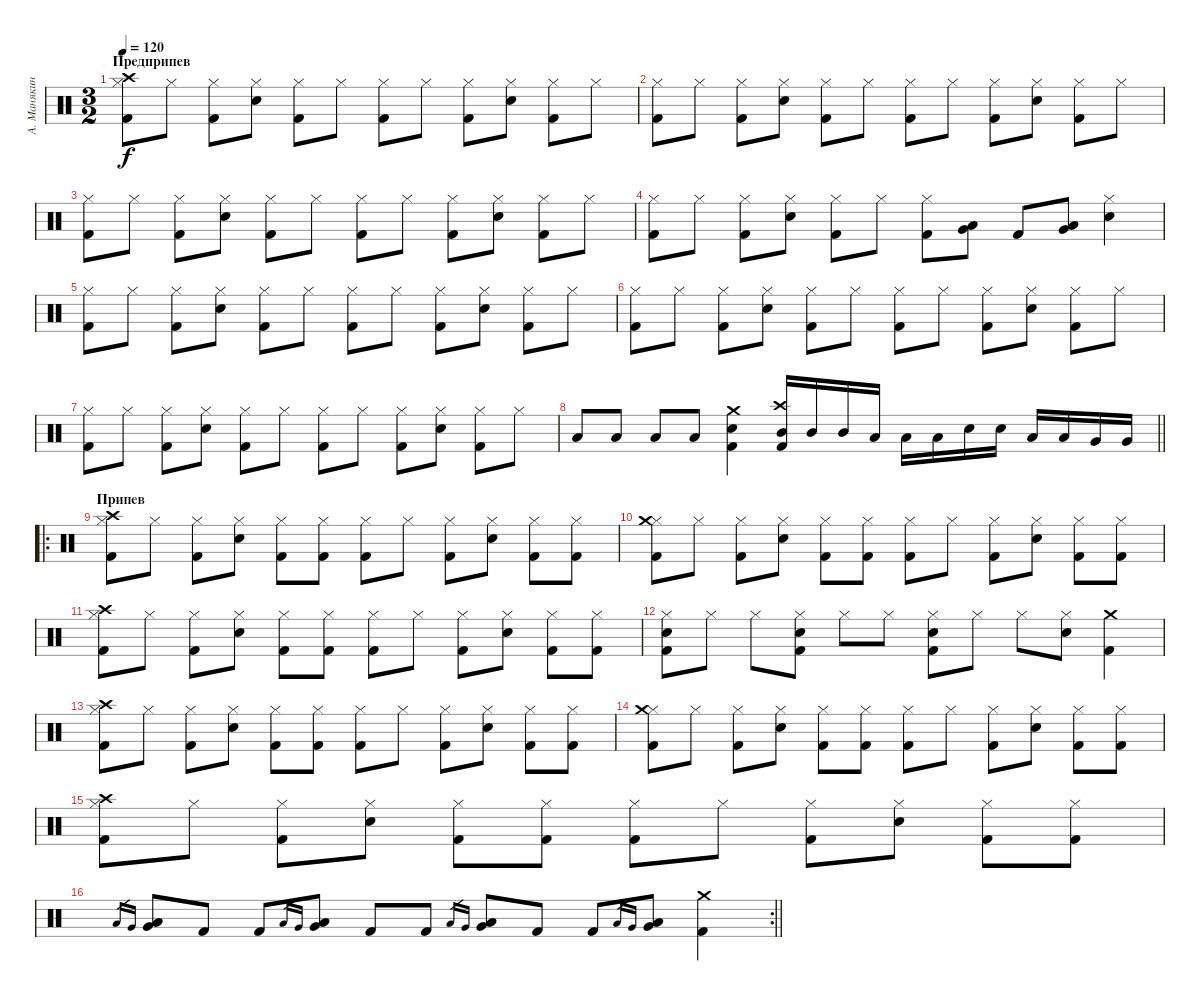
\track ("А. Манякин" "А. Манякин") {instrument percussion}
\staff {score}
\articulation defaults
\ts (3 2)
\section ("" "Предприпев")
\tempo 120
\clef neutral
\ks c
("Kick (hit) 2" "Hi-Hat (closed)" "Crash high (hit)").8{dy f} "Hi-Hat (closed)".8 ("Kick (hit) 2" "Hi-Hat (closed)").8 ("Electric Snare (hit)" "Hi-Hat (closed)").8 ("Kick (hit) 2" "Hi-Hat (closed)").8 "Hi-Hat (closed)".8 ("Kick (hit) 2" "Hi-Hat (closed)").8 "Hi-Hat (closed)".8 ("Kick (hit) 2" "Hi-Hat (closed)").8 ("Electric Snare (hit)" "Hi-Hat (closed)").8 ("Kick (hit) 2" "Hi-Hat (closed)").8 "Hi-Hat (closed)".8 |
("Kick (hit) 2" "Hi-Hat (closed)").8 "Hi-Hat (closed)".8 ("Kick (hit) 2" "Hi-Hat (closed)").8 ("Electric Snare (hit)" "Hi-Hat (closed)").8 ("Kick (hit) 2" "Hi-Hat (closed)").8 "Hi-Hat (closed)".8 ("Kick (hit) 2" "Hi-Hat (closed)").8 "Hi-Hat (closed)".8 ("Kick (hit) 2" "Hi-Hat (closed)").8 ("Electric Snare (hit)" "Hi-Hat (closed)").8 ("Kick (hit) 2" "Hi-Hat (closed)").8 "Hi-Hat (closed)".8 |
("Kick (hit) 2" "Hi-Hat (closed)").8 "Hi-Hat (closed)".8 ("Kick (hit) 2" "Hi-Hat (closed)").8 ("Electric Snare (hit)" "Hi-Hat (closed)").8 ("Kick (hit) 2" "Hi-Hat (closed)").8 "Hi-Hat (closed)".8 ("Kick (hit) 2" "Hi-Hat (closed)").8 "Hi-Hat (closed)".8 ("Kick (hit) 2" "Hi-Hat (closed)").8 ("Electric Snare (hit)" "Hi-Hat (closed)").8 ("Kick (hit) 2" "Hi-Hat (closed)").8 "Hi-Hat (closed)".8 |
("Kick (hit) 2" "Hi-Hat (closed)").8 "Hi-Hat (closed)".8 ("Kick (hit) 2" "Hi-Hat (closed)").8 ("Electric Snare (hit)" "Hi-Hat (closed)").8 ("Kick (hit) 2" "Hi-Hat (closed)").8 "Hi-Hat (closed)".8 ("Kick (hit) 2" "Hi-Hat (closed)").8 ("Low Tom (hit)" "Very Low Tom (hit)").8 "Kick (hit) 2".8 ("Low Tom (hit)" "Very Low Tom (hit)").8 ("Electric Snare (hit)" "Hi-Hat (closed)").4 |
("Kick (hit) 2" "Hi-Hat (closed)").8 "Hi-Hat (closed)".8 ("Kick (hit) 2" "Hi-Hat (closed)").8 ("Electric Snare (hit)" "Hi-Hat (closed)").8 ("Kick (hit) 2" "Hi-Hat (closed)").8 "Hi-Hat (closed)".8 ("Kick (hit) 2" "Hi-Hat (closed)").8 "Hi-Hat (closed)".8 ("Kick (hit) 2" "Hi-Hat (closed)").8 ("Electric Snare (hit)" "Hi-Hat (closed)").8 ("Kick (hit) 2" "Hi-Hat (closed)").8 "Hi-Hat (closed)".8 |
("Kick (hit) 2" "Hi-Hat (closed)").8 "Hi-Hat (closed)".8 ("Kick (hit) 2" "Hi-Hat (closed)").8 ("Electric Snare (hit)" "Hi-Hat (closed)").8 ("Kick (hit) 2" "Hi-Hat (closed)").8 "Hi-Hat (closed)".8 ("Kick (hit) 2" "Hi-Hat (closed)").8 "Hi-Hat (closed)".8 ("Kick (hit) 2" "Hi-Hat (closed)").8 ("Electric Snare (hit)" "Hi-Hat (closed)").8 ("Kick (hit) 2" "Hi-Hat (closed)").8 "Hi-Hat (closed)".8 |
("Kick (hit) 2" "Hi-Hat (closed)").8 "Hi-Hat (closed)".8 ("Kick (hit) 2" "Hi-Hat (closed)").8 ("Electric Snare (hit)" "Hi-Hat (closed)").8 ("Kick (hit) 2" "Hi-Hat (closed)").8 "Hi-Hat (closed)".8 ("Kick (hit) 2" "Hi-Hat (closed)").8 "Hi-Hat (closed)".8 ("Kick (hit) 2" "Hi-Hat (closed)").8 ("Electric Snare (hit)" "Hi-Hat (closed)").8 ("Kick (hit) 2" "Hi-Hat (closed)").8 "Hi-Hat (closed)".8 |
\barLineRight lightlight "Low Tom (hit)".8 "Low Tom (hit)".8 "Low Tom (hit)".8 "Low Tom (hit)".8
("Kick (hit) 2" "Electric Snare (hit)" "Crash medium (hit)").4 ("Kick (hit) 2" "Mid Tom (hit)" "Crash high (hit)").16 "Mid Tom (hit)".16 "Mid Tom (hit)".16 "Low Tom (hit)".16 "Low Tom (hit)".16 "Low Tom (hit)".16 "Electric Snare (hit)".16 "Electric Snare (hit)".16 "Low Tom (hit)".16 "Low Tom (hit)".16 "Very Low Tom (hit)".16 "Very Low Tom (hit)".16 |
\ro
\section ("" "Припев")
("Kick (hit) 2" "Hi-Hat (closed)" "Crash high (hit)").8 "Hi-Hat (closed)".8 ("Kick (hit) 2" "Hi-Hat (closed)").8 ("Electric Snare (hit)" "Hi-Hat (closed)").8 ("Kick (hit) 2" "Hi-Hat (closed)").8 ("Kick (hit) 2" "Hi-Hat (closed)").8 ("Kick (hit) 2" "Hi-Hat (closed)").8 "Hi-Hat (closed)".8 ("Kick (hit) 2" "Hi-Hat (closed)").8 ("Electric Snare (hit)" "Hi-Hat (closed)").8 ("Kick (hit) 2" "Hi-Hat (closed)").8 ("Kick (hit) 2" "Hi-Hat (closed)").8 |
("Kick (hit) 2" "Hi-Hat (closed)" "Crash medium (hit)").8 "Hi-Hat (closed)".8 ("Kick (hit) 2" "Hi-Hat (closed)").8 ("Electric Snare (hit)" "Hi-Hat (closed)").8 ("Kick (hit) 2" "Hi-Hat (closed)").8 ("Kick (hit) 2" "Hi-Hat (closed)").8 ("Kick (hit) 2" "Hi-Hat (closed)").8 "Hi-Hat (closed)".8 ("Kick (hit) 2" "Hi-Hat (closed)").8 ("Electric Snare (hit)" "Hi-Hat (closed)").8 ("Kick (hit) 2" "Hi-Hat (closed)").8 ("Kick (hit) 2" "Hi-Hat (closed)").8 |
("Kick (hit) 2" "Hi-Hat (closed)" "Crash high (hit)").8 "Hi-Hat (closed)".8 ("Kick (hit) 2" "Hi-Hat (closed)").8 ("Electric Snare (hit)" "Hi-Hat (closed)").8 ("Kick (hit) 2" "Hi-Hat (closed)").8 ("Kick (hit) 2" "Hi-Hat (closed)").8 ("Kick (hit) 2" "Hi-Hat (closed)").8 "Hi-Hat (closed)".8 ("Kick (hit) 2" "Hi-Hat (closed)").8 ("Electric Snare (hit)" "Hi-Hat (closed)").8 ("Kick (hit) 2" "Hi-Hat (closed)").8 ("Kick (hit) 2" "Hi-Hat (closed)").8 |
("Kick (hit) 2" "Electric Snare (hit)" "Hi-Hat (closed)").8 "Hi-Hat (closed)".8 "Hi-Hat (closed)".8 ("Kick (hit) 2" "Electric Snare (hit)" "Hi-Hat (closed)").8 "Hi-Hat (closed)".8 "Hi-Hat (closed)".8 ("Kick (hit) 2" "Electric Snare (hit)" "Hi-Hat (closed)").8 "Hi-Hat (closed)".8 "Hi-Hat (closed)".8 ("Electric Snare (hit)" "Hi-Hat (closed)").8 ("Kick (hit) 2" "Crash medium (hit)").4 |
("Kick (hit) 2" "Hi-Hat (closed)" "Crash high (hit)").8 "Hi-Hat (closed)".8 ("Kick (hit) 2" "Hi-Hat (closed)").8 ("Electric Snare (hit)" "Hi-Hat (closed)").8 ("Kick (hit) 2" "Hi-Hat (closed)").8 ("Kick (hit) 2" "Hi-Hat (closed)").8 ("Kick (hit) 2" "Hi-Hat (closed)").8 "Hi-Hat (closed)".8 ("Kick (hit) 2" "Hi-Hat (closed)").8 ("Electric Snare (hit)" "Hi-Hat (closed)").8 ("Kick (hit) 2" "Hi-Hat (closed)").8 ("Kick (hit) 2" "Hi-Hat (closed)").8 |
("Kick (hit) 2" "Hi-Hat (closed)" "Crash medium (hit)").8 "Hi-Hat (closed)".8 ("Kick (hit) 2" "Hi-Hat (closed)").8 ("Electric Snare (hit)" "Hi-Hat (closed)").8 ("Kick (hit) 2" "Hi-Hat (closed)").8 ("Kick (hit) 2" "Hi-Hat (closed)").8 ("Kick (hit) 2" "Hi-Hat (closed)").8 "Hi-Hat (closed)".8 ("Kick (hit) 2" "Hi-Hat (closed)").8 ("Electric Snare (hit)" "Hi-Hat (closed)").8 ("Kick (hit) 2" "Hi-Hat (closed)").8 ("Kick (hit) 2" "Hi-Hat (closed)").8 |
("Kick (hit) 2" "Hi-Hat (closed)" "Crash high (hit)").8 "Hi-Hat (closed)".8 ("Kick (hit) 2" "Hi-Hat (closed)").8 ("Electric Snare (hit)" "Hi-Hat (closed)").8 ("Kick (hit) 2" "Hi-Hat (closed)").8 ("Kick (hit) 2" "Hi-Hat (closed)").8 ("Kick (hit) 2" "Hi-Hat (closed)").8 "Hi-Hat (closed)".8 ("Kick (hit) 2" "Hi-Hat (closed)").8 ("Electric Snare (hit)" "Hi-Hat (closed)").8 ("Kick (hit) 2" "Hi-Hat (closed)").8 ("Kick (hit) 2" "Hi-Hat (closed)").8 |
\rc 2
\barLineRight lightlight "Low Tom (hit)".16{gr} "Very Low Tom (hit)".16{gr}
("Low Tom (hit)" "Very Low Tom (hit)").8 "Kick (hit) 2".8 "Kick (hit) 2".8 "Low Tom (hit)".16{gr} "Very Low Tom (hit)".16{gr} ("Low Tom (hit)" "Very Low Tom (hit)").8 "Kick (hit) 2".8 "Kick (hit) 2".8 "Low Tom (hit)".16{gr} "Very Low Tom (hit)".16{gr} ("Low Tom (hit)" "Very Low Tom (hit)").8 "Kick (hit) 2".8 "Kick (hit) 2".8 "Low Tom (hit)".16{gr} "Very Low Tom (hit)".16{gr} ("Low Tom (hit)" "Very Low Tom (hit)").8 ("Kick (hit) 2" "Crash medium (hit)").4
